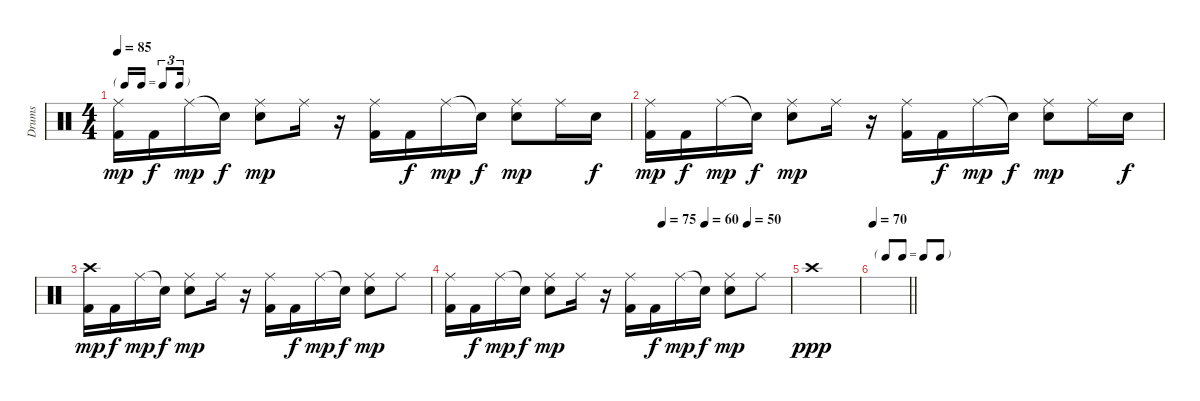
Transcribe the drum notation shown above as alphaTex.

\track ("Drums" "Drums") {instrument percussion}
\staff {score}
\articulation defaults
\ts (4 4)
\tf triplet16th
\tempo 85
\clef neutral
\ks c
("Ride (middle)" "Kick (hit) 2").16{dy mp} "Kick (hit) 2".16{dy f} "Ride (middle)".16{dy mp} "Snare (hit)"{t}.16{dy f} ("Ride (middle)" "Electric Snare (hit)").8{dy mp} "Ride (middle)".16 r.16 ("Ride (middle)" "Kick (hit) 2").16 "Kick (hit) 2".16{dy f} "Ride (middle)".16{dy mp} "Snare (hit)"{t}.16{dy f} ("Ride (middle)" "Electric Snare (hit)").8{dy mp} "Ride (middle)".16 "Electric Snare (hit)".16{dy f} |
("Ride (middle)" "Kick (hit) 2").16{dy mp} "Kick (hit) 2".16{dy f} "Ride (middle)".16{dy mp} "Snare (hit)"{t}.16{dy f} ("Ride (middle)" "Electric Snare (hit)").8{dy mp} "Ride (middle)".16 r.16 ("Ride (middle)" "Kick (hit) 2").16 "Kick (hit) 2".16{dy f} "Ride (middle)".16{dy mp} "Snare (hit)"{t}.16{dy f} ("Ride (middle)" "Electric Snare (hit)").8{dy mp} "Ride (middle)".16 "Electric Snare (hit)".16{dy f} |
("Crash high (hit)" "Kick (hit) 2").16{dy mp} "Kick (hit) 2".16{dy f} "Ride (middle)".16{dy mp} "Snare (hit)"{t}.16{dy f} ("Ride (middle)" "Electric Snare (hit)").8{dy mp} "Ride (middle)".16 r.16 ("Ride (middle)" "Kick (hit) 2").16 "Kick (hit) 2".16{dy f} "Ride (middle)".16{dy mp} "Snare (hit)"{t}.16{dy f} ("Ride (middle)" "Electric Snare (hit)").8{dy mp} "Ride (middle)".8 |
\tempo (75 0.625)
\tempo (60 0.75)
\tempo (50 0.875)
("Ride (middle)" "Kick (hit) 2").16 "Kick (hit) 2".16{dy f} "Ride (middle)".16{dy mp} "Snare (hit)"{t}.16{dy f} ("Ride (middle)" "Electric Snare (hit)").8{dy mp} "Ride (middle)".16 r.16 ("Ride (middle)" "Kick (hit) 2").16 "Kick (hit) 2".16{dy f} "Ride (middle)".16{dy mp} "Snare (hit)"{t}.16{dy f} ("Ride (middle)" "Electric Snare (hit)").8{dy mp} "Ride (middle)".8 |
"Crash high (hit)".1{dy ppp} |
\tf none
\tempo 70
\barLineRight lightlight
